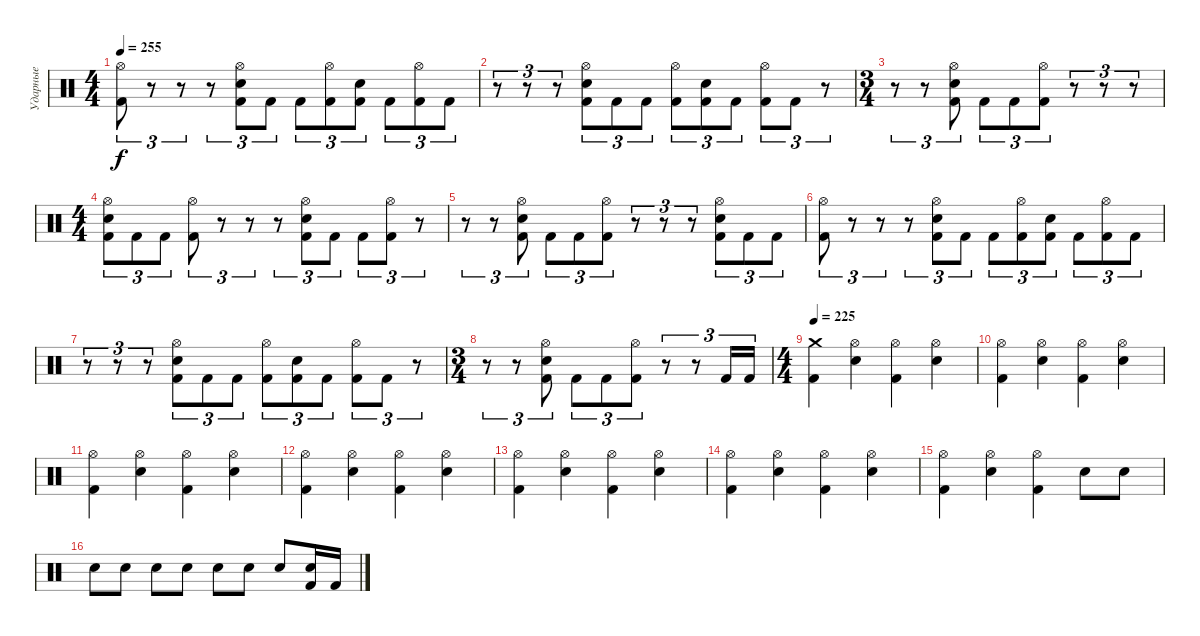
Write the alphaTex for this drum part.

\track ("Ударные" "Ударные") {instrument percussion}
\staff {score}
\articulation defaults
\ts (4 4)
\tempo 255
\clef neutral
\ks c
("Hi-Hat (open)" "Kick (hit) 2").8{tu (3 2) dy f} r.8{tu (3 2)} r.8{tu (3 2)} r.8{tu (3 2)} ("Hi-Hat (open)" "Snare (hit) 2" "Kick (hit) 2").8{tu (3 2)} "Kick (hit) 2".8{tu (3 2)} "Kick (hit) 2".8{tu (3 2)} ("Hi-Hat (open)" "Kick (hit) 2").8{tu (3 2)} ("Snare (hit) 2" "Kick (hit) 2").8{tu (3 2)} "Kick (hit) 2".8{tu (3 2)} ("Hi-Hat (open)" "Kick (hit) 2").8{tu (3 2)} "Kick (hit) 2".8{tu (3 2)} |
r.8{tu (3 2)} r.8{tu (3 2)} r.8{tu (3 2)} ("Hi-Hat (open)" "Snare (hit) 2" "Kick (hit) 2").8{tu (3 2)} "Kick (hit) 2".8{tu (3 2)} "Kick (hit) 2".8{tu (3 2)} ("Hi-Hat (open)" "Kick (hit) 2").8{tu (3 2)} ("Snare (hit) 2" "Kick (hit) 2").8{tu (3 2)} "Kick (hit) 2".8{tu (3 2)} ("Hi-Hat (open)" "Kick (hit) 2").8{tu (3 2)} "Kick (hit) 2".8{tu (3 2)} r.8{tu (3 2)} |
\ts (3 4)
r.8{tu (3 2)} r.8{tu (3 2)} ("Hi-Hat (open)" "Snare (hit) 2" "Kick (hit) 2").8{tu (3 2)} "Kick (hit) 2".8{tu (3 2)} "Kick (hit) 2".8{tu (3 2)} ("Hi-Hat (open)" "Kick (hit) 2").8{tu (3 2)} r.8{tu (3 2)} r.8{tu (3 2)} r.8{tu (3 2)} |
\ts (4 4)
("Hi-Hat (open)" "Snare (hit) 2" "Kick (hit) 2").8{tu (3 2)} "Kick (hit) 2".8{tu (3 2)} "Kick (hit) 2".8{tu (3 2)} ("Hi-Hat (open)" "Kick (hit) 2").8{tu (3 2)} r.8{tu (3 2)} r.8{tu (3 2)} r.8{tu (3 2)} ("Hi-Hat (open)" "Snare (hit) 2" "Kick (hit) 2").8{tu (3 2)} "Kick (hit) 2".8{tu (3 2)} "Kick (hit) 2".8{tu (3 2)} ("Hi-Hat (open)" "Kick (hit) 2").8{tu (3 2)} r.8{tu (3 2)} |
r.8{tu (3 2)} r.8{tu (3 2)} ("Hi-Hat (open)" "Snare (hit) 2" "Kick (hit) 2").8{tu (3 2)} "Kick (hit) 2".8{tu (3 2)} "Kick (hit) 2".8{tu (3 2)} ("Hi-Hat (open)" "Kick (hit) 2").8{tu (3 2)} r.8{tu (3 2)} r.8{tu (3 2)} r.8{tu (3 2)} ("Hi-Hat (open)" "Snare (hit) 2" "Kick (hit) 2").8{tu (3 2)} "Kick (hit) 2".8{tu (3 2)} "Kick (hit) 2".8{tu (3 2)} |
("Hi-Hat (open)" "Kick (hit) 2").8{tu (3 2)} r.8{tu (3 2)} r.8{tu (3 2)} r.8{tu (3 2)} ("Hi-Hat (open)" "Snare (hit) 2" "Kick (hit) 2").8{tu (3 2)} "Kick (hit) 2".8{tu (3 2)} "Kick (hit) 2".8{tu (3 2)} ("Hi-Hat (open)" "Kick (hit) 2").8{tu (3 2)} ("Snare (hit) 2" "Kick (hit) 2").8{tu (3 2)} "Kick (hit) 2".8{tu (3 2)} ("Hi-Hat (open)" "Kick (hit) 2").8{tu (3 2)} "Kick (hit) 2".8{tu (3 2)} |
r.8{tu (3 2)} r.8{tu (3 2)} r.8{tu (3 2)} ("Hi-Hat (open)" "Snare (hit) 2" "Kick (hit) 2").8{tu (3 2)} "Kick (hit) 2".8{tu (3 2)} "Kick (hit) 2".8{tu (3 2)} ("Hi-Hat (open)" "Kick (hit) 2").8{tu (3 2)} ("Snare (hit) 2" "Kick (hit) 2").8{tu (3 2)} "Kick (hit) 2".8{tu (3 2)} ("Hi-Hat (open)" "Kick (hit) 2").8{tu (3 2)} "Kick (hit) 2".8{tu (3 2)} r.8{tu (3 2)} |
\ts (3 4)
r.8{tu (3 2)} r.8{tu (3 2)} ("Hi-Hat (open)" "Snare (hit) 2" "Kick (hit) 2").8{tu (3 2)} "Kick (hit) 2".8{tu (3 2)} "Kick (hit) 2".8{tu (3 2)} ("Hi-Hat (open)" "Kick (hit) 2").8{tu (3 2)} r.8{tu (3 2)} r.8{tu (3 2)} "Kick (hit) 2".16{tu (3 2)} "Kick (hit) 2".16{tu (3 2)} |
\ts (4 4)
\tempo 225
("Crash medium (hit)" "Kick (hit) 2").4 ("Hi-Hat (open)" "Snare (hit) 2").4 ("Hi-Hat (open)" "Kick (hit) 2").4 ("Hi-Hat (open)" "Snare (hit) 2").4 |
("Hi-Hat (open)" "Kick (hit) 2").4 ("Hi-Hat (open)" "Snare (hit) 2").4 ("Hi-Hat (open)" "Kick (hit) 2").4 ("Hi-Hat (open)" "Snare (hit) 2").4 |
("Hi-Hat (open)" "Kick (hit) 2").4 ("Hi-Hat (open)" "Snare (hit) 2").4 ("Hi-Hat (open)" "Kick (hit) 2").4 ("Hi-Hat (open)" "Snare (hit) 2").4 |
("Hi-Hat (open)" "Kick (hit) 2").4 ("Hi-Hat (open)" "Snare (hit) 2").4 ("Hi-Hat (open)" "Kick (hit) 2").4 ("Hi-Hat (open)" "Snare (hit) 2").4 |
("Hi-Hat (open)" "Kick (hit) 2").4 ("Hi-Hat (open)" "Snare (hit) 2").4 ("Hi-Hat (open)" "Kick (hit) 2").4 ("Hi-Hat (open)" "Snare (hit) 2").4 |
("Hi-Hat (open)" "Kick (hit) 2").4 ("Hi-Hat (open)" "Snare (hit) 2").4 ("Hi-Hat (open)" "Kick (hit) 2").4 ("Hi-Hat (open)" "Snare (hit) 2").4 |
("Hi-Hat (open)" "Kick (hit) 2").4 ("Hi-Hat (open)" "Snare (hit) 2").4 ("Hi-Hat (open)" "Kick (hit) 2").4 "Snare (hit) 2".8 "Snare (hit) 2".8 |
"Snare (hit) 2".8 "Snare (hit) 2".8 "Snare (hit) 2".8 "Snare (hit) 2".8 "Snare (hit) 2".8 "Snare (hit) 2".8 "Snare (hit) 2".8 ("Snare (hit) 2" "Kick (hit) 2").16 "Kick (hit) 2".16
